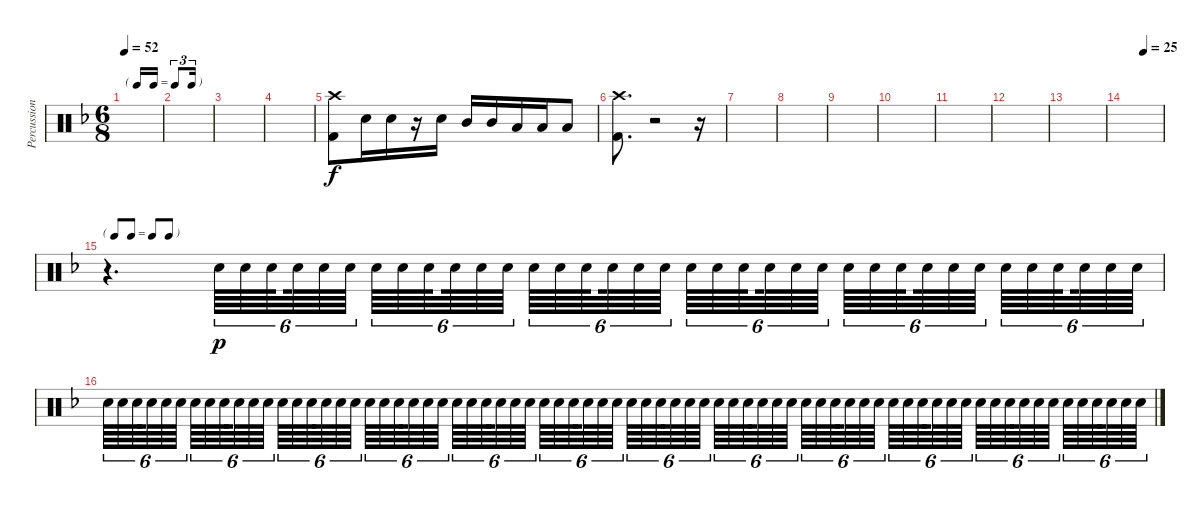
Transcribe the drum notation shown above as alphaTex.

\track ("Percussion" "Percussion") {instrument percussion}
\staff {score}
\articulation defaults
\ts (6 8)
\tf triplet16th
\tempo 52
\clef neutral
\ks f
|
|
|
|
("Crash high (hit)" "Kick (hit) 2").8 "Snare (hit) 2".16 "Snare (hit) 2".16 r.16 "Snare (hit) 2".16 "Mid Tom (hit)".16 "Mid Tom (hit)".16 "Low Floor Tom (hit)".16 "Low Floor Tom (hit)".16 "Low Floor Tom (hit)".8 |
("Crash high (hit)" "Kick (hit) 2").8{d} r.2 r.16 |
|
|
|
|
|
|
|
\tempo (25 0.5)
|
\tf none
r.4{d} "Snare (hit) 2".64{tu (6 4) dy p} "Snare (hit) 2".64{tu (6 4)} "Snare (hit) 2".64{tu (6 4) beam splitsecondary} "Snare (hit) 2".64{tu (6 4)} "Snare (hit) 2".64{tu (6 4)} "Snare (hit) 2".64{tu (6 4) beam splitsecondary} "Snare (hit) 2".64{tu (6 4)} "Snare (hit) 2".64{tu (6 4)} "Snare (hit) 2".64{tu (6 4) beam splitsecondary} "Snare (hit) 2".64{tu (6 4)} "Snare (hit) 2".64{tu (6 4)} "Snare (hit) 2".64{tu (6 4) beam splitsecondary} "Snare (hit) 2".64{tu (6 4)} "Snare (hit) 2".64{tu (6 4)} "Snare (hit) 2".64{tu (6 4) beam splitsecondary} "Snare (hit) 2".64{tu (6 4)} "Snare (hit) 2".64{tu (6 4)} "Snare (hit) 2".64{tu (6 4) beam splitsecondary} "Snare (hit) 2".64{tu (6 4)} "Snare (hit) 2".64{tu (6 4)} "Snare (hit) 2".64{tu (6 4) beam splitsecondary} "Snare (hit) 2".64{tu (6 4)} "Snare (hit) 2".64{tu (6 4)} "Snare (hit) 2".64{tu (6 4) beam splitsecondary} "Snare (hit) 2".64{tu (6 4)} "Snare (hit) 2".64{tu (6 4)} "Snare (hit) 2".64{tu (6 4) beam splitsecondary} "Snare (hit) 2".64{tu (6 4)} "Snare (hit) 2".64{tu (6 4)} "Snare (hit) 2".64{tu (6 4) beam splitsecondary} "Snare (hit) 2".64{tu (6 4)} "Snare (hit) 2".64{tu (6 4)} "Snare (hit) 2".64{tu (6 4) beam splitsecondary} "Snare (hit) 2".64{tu (6 4)} "Snare (hit) 2".64{tu (6 4)} "Snare (hit) 2".64{tu (6 4)} |
"Snare (hit) 2".64{tu (6 4)} "Snare (hit) 2".64{tu (6 4)} "Snare (hit) 2".64{tu (6 4) beam splitsecondary} "Snare (hit) 2".64{tu (6 4)} "Snare (hit) 2".64{tu (6 4)} "Snare (hit) 2".64{tu (6 4) beam splitsecondary} "Snare (hit) 2".64{tu (6 4)} "Snare (hit) 2".64{tu (6 4)} "Snare (hit) 2".64{tu (6 4) beam splitsecondary} "Snare (hit) 2".64{tu (6 4)} "Snare (hit) 2".64{tu (6 4)} "Snare (hit) 2".64{tu (6 4) beam splitsecondary} "Snare (hit) 2".64{tu (6 4)} "Snare (hit) 2".64{tu (6 4)} "Snare (hit) 2".64{tu (6 4) beam splitsecondary} "Snare (hit) 2".64{tu (6 4)} "Snare (hit) 2".64{tu (6 4)} "Snare (hit) 2".64{tu (6 4) beam splitsecondary} "Snare (hit) 2".64{tu (6 4)} "Snare (hit) 2".64{tu (6 4)} "Snare (hit) 2".64{tu (6 4) beam splitsecondary} "Snare (hit) 2".64{tu (6 4)} "Snare (hit) 2".64{tu (6 4)} "Snare (hit) 2".64{tu (6 4) beam splitsecondary} "Snare (hit) 2".64{tu (6 4)} "Snare (hit) 2".64{tu (6 4)} "Snare (hit) 2".64{tu (6 4) beam splitsecondary} "Snare (hit) 2".64{tu (6 4)} "Snare (hit) 2".64{tu (6 4)} "Snare (hit) 2".64{tu (6 4) beam splitsecondary} "Snare (hit) 2".64{tu (6 4)} "Snare (hit) 2".64{tu (6 4)} "Snare (hit) 2".64{tu (6 4) beam splitsecondary} "Snare (hit) 2".64{tu (6 4)} "Snare (hit) 2".64{tu (6 4)} "Snare (hit) 2".64{tu (6 4)} "Snare (hit) 2".64{tu (6 4)} "Snare (hit) 2".64{tu (6 4)} "Snare (hit) 2".64{tu (6 4) beam splitsecondary} "Snare (hit) 2".64{tu (6 4)} "Snare (hit) 2".64{tu (6 4)} "Snare (hit) 2".64{tu (6 4) beam splitsecondary} "Snare (hit) 2".64{tu (6 4)} "Snare (hit) 2".64{tu (6 4)} "Snare (hit) 2".64{tu (6 4) beam splitsecondary} "Snare (hit) 2".64{tu (6 4)} "Snare (hit) 2".64{tu (6 4)} "Snare (hit) 2".64{tu (6 4) beam splitsecondary} "Snare (hit) 2".64{tu (6 4)} "Snare (hit) 2".64{tu (6 4)} "Snare (hit) 2".64{tu (6 4) beam splitsecondary} "Snare (hit) 2".64{tu (6 4)} "Snare (hit) 2".64{tu (6 4)} "Snare (hit) 2".64{tu (6 4) beam splitsecondary} "Snare (hit) 2".64{tu (6 4)} "Snare (hit) 2".64{tu (6 4)} "Snare (hit) 2".64{tu (6 4) beam splitsecondary} "Snare (hit) 2".64{tu (6 4)} "Snare (hit) 2".64{tu (6 4)} "Snare (hit) 2".64{tu (6 4) beam splitsecondary} "Snare (hit) 2".64{tu (6 4)} "Snare (hit) 2".64{tu (6 4)} "Snare (hit) 2".64{tu (6 4) beam splitsecondary} "Snare (hit) 2".64{tu (6 4)} "Snare (hit) 2".64{tu (6 4)} "Snare (hit) 2".64{tu (6 4) beam splitsecondary} "Snare (hit) 2".64{tu (6 4)} "Snare (hit) 2".64{tu (6 4)} "Snare (hit) 2".64{tu (6 4) beam splitsecondary} "Snare (hit) 2".64{tu (6 4)} "Snare (hit) 2".64{tu (6 4)} "Snare (hit) 2".64{tu (6 4)}
